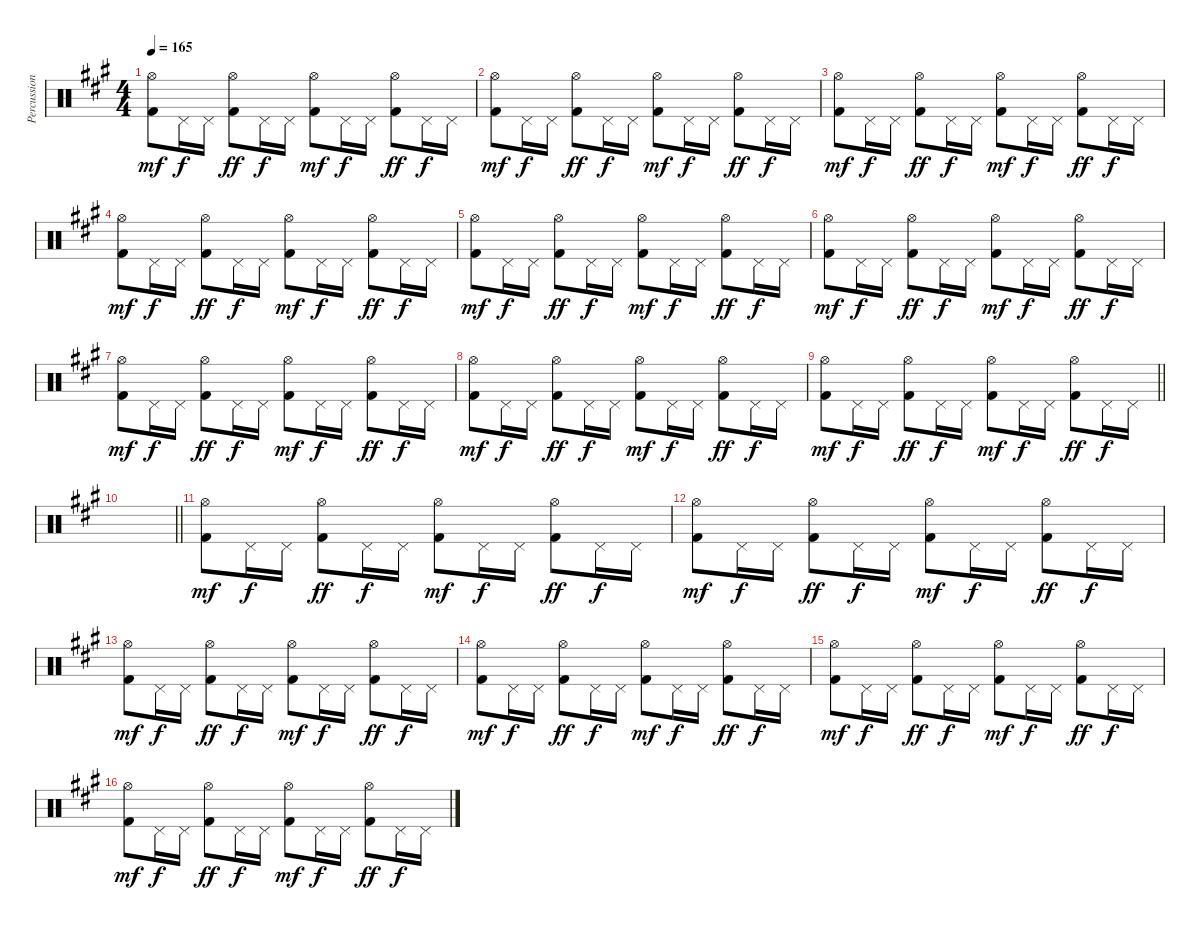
\track ("Percussion" "Percussion") {instrument percussion}
\staff {score}
\articulation defaults
\ts (4 4)
\tempo 165
\clef neutral
\ks a
("Hi-Hat (open)" "Kick (hit) 2").8{dy mf} "Pedal Hi-Hat (hit)".16{dy f} "Pedal Hi-Hat (hit)".16 ("Hi-Hat (open)" "Kick (hit) 2").8{dy ff} "Pedal Hi-Hat (hit)".16{dy f} "Pedal Hi-Hat (hit)".16 ("Hi-Hat (open)" "Kick (hit) 2").8{dy mf} "Pedal Hi-Hat (hit)".16{dy f} "Pedal Hi-Hat (hit)".16 ("Hi-Hat (open)" "Kick (hit) 2").8{dy ff} "Pedal Hi-Hat (hit)".16{dy f} "Pedal Hi-Hat (hit)".16 |
("Hi-Hat (open)" "Kick (hit) 2").8{dy mf} "Pedal Hi-Hat (hit)".16{dy f} "Pedal Hi-Hat (hit)".16 ("Hi-Hat (open)" "Kick (hit) 2").8{dy ff} "Pedal Hi-Hat (hit)".16{dy f} "Pedal Hi-Hat (hit)".16 ("Hi-Hat (open)" "Kick (hit) 2").8{dy mf} "Pedal Hi-Hat (hit)".16{dy f} "Pedal Hi-Hat (hit)".16 ("Hi-Hat (open)" "Kick (hit) 2").8{dy ff} "Pedal Hi-Hat (hit)".16{dy f} "Pedal Hi-Hat (hit)".16 |
("Hi-Hat (open)" "Kick (hit) 2").8{dy mf} "Pedal Hi-Hat (hit)".16{dy f} "Pedal Hi-Hat (hit)".16 ("Hi-Hat (open)" "Kick (hit) 2").8{dy ff} "Pedal Hi-Hat (hit)".16{dy f} "Pedal Hi-Hat (hit)".16 ("Hi-Hat (open)" "Kick (hit) 2").8{dy mf} "Pedal Hi-Hat (hit)".16{dy f} "Pedal Hi-Hat (hit)".16 ("Hi-Hat (open)" "Kick (hit) 2").8{dy ff} "Pedal Hi-Hat (hit)".16{dy f} "Pedal Hi-Hat (hit)".16 |
("Hi-Hat (open)" "Kick (hit) 2").8{dy mf} "Pedal Hi-Hat (hit)".16{dy f} "Pedal Hi-Hat (hit)".16 ("Hi-Hat (open)" "Kick (hit) 2").8{dy ff} "Pedal Hi-Hat (hit)".16{dy f} "Pedal Hi-Hat (hit)".16 ("Hi-Hat (open)" "Kick (hit) 2").8{dy mf} "Pedal Hi-Hat (hit)".16{dy f} "Pedal Hi-Hat (hit)".16 ("Hi-Hat (open)" "Kick (hit) 2").8{dy ff} "Pedal Hi-Hat (hit)".16{dy f} "Pedal Hi-Hat (hit)".16 |
("Hi-Hat (open)" "Kick (hit) 2").8{dy mf} "Pedal Hi-Hat (hit)".16{dy f} "Pedal Hi-Hat (hit)".16 ("Hi-Hat (open)" "Kick (hit) 2").8{dy ff} "Pedal Hi-Hat (hit)".16{dy f} "Pedal Hi-Hat (hit)".16 ("Hi-Hat (open)" "Kick (hit) 2").8{dy mf} "Pedal Hi-Hat (hit)".16{dy f} "Pedal Hi-Hat (hit)".16 ("Hi-Hat (open)" "Kick (hit) 2").8{dy ff} "Pedal Hi-Hat (hit)".16{dy f} "Pedal Hi-Hat (hit)".16 |
("Hi-Hat (open)" "Kick (hit) 2").8{dy mf} "Pedal Hi-Hat (hit)".16{dy f} "Pedal Hi-Hat (hit)".16 ("Hi-Hat (open)" "Kick (hit) 2").8{dy ff} "Pedal Hi-Hat (hit)".16{dy f} "Pedal Hi-Hat (hit)".16 ("Hi-Hat (open)" "Kick (hit) 2").8{dy mf} "Pedal Hi-Hat (hit)".16{dy f} "Pedal Hi-Hat (hit)".16 ("Hi-Hat (open)" "Kick (hit) 2").8{dy ff} "Pedal Hi-Hat (hit)".16{dy f} "Pedal Hi-Hat (hit)".16 |
("Hi-Hat (open)" "Kick (hit) 2").8{dy mf} "Pedal Hi-Hat (hit)".16{dy f} "Pedal Hi-Hat (hit)".16 ("Hi-Hat (open)" "Kick (hit) 2").8{dy ff} "Pedal Hi-Hat (hit)".16{dy f} "Pedal Hi-Hat (hit)".16 ("Hi-Hat (open)" "Kick (hit) 2").8{dy mf} "Pedal Hi-Hat (hit)".16{dy f} "Pedal Hi-Hat (hit)".16 ("Hi-Hat (open)" "Kick (hit) 2").8{dy ff} "Pedal Hi-Hat (hit)".16{dy f} "Pedal Hi-Hat (hit)".16 |
("Hi-Hat (open)" "Kick (hit) 2").8{dy mf} "Pedal Hi-Hat (hit)".16{dy f} "Pedal Hi-Hat (hit)".16 ("Hi-Hat (open)" "Kick (hit) 2").8{dy ff} "Pedal Hi-Hat (hit)".16{dy f} "Pedal Hi-Hat (hit)".16 ("Hi-Hat (open)" "Kick (hit) 2").8{dy mf} "Pedal Hi-Hat (hit)".16{dy f} "Pedal Hi-Hat (hit)".16 ("Hi-Hat (open)" "Kick (hit) 2").8{dy ff} "Pedal Hi-Hat (hit)".16{dy f} "Pedal Hi-Hat (hit)".16 |
\barLineRight lightlight
("Hi-Hat (open)" "Kick (hit) 2").8{dy mf} "Pedal Hi-Hat (hit)".16{dy f} "Pedal Hi-Hat (hit)".16 ("Hi-Hat (open)" "Kick (hit) 2").8{dy ff} "Pedal Hi-Hat (hit)".16{dy f} "Pedal Hi-Hat (hit)".16 ("Hi-Hat (open)" "Kick (hit) 2").8{dy mf} "Pedal Hi-Hat (hit)".16{dy f} "Pedal Hi-Hat (hit)".16 ("Hi-Hat (open)" "Kick (hit) 2").8{dy ff} "Pedal Hi-Hat (hit)".16{dy f} "Pedal Hi-Hat (hit)".16 |
\barLineRight lightlight
|
("Hi-Hat (open)" "Kick (hit) 2").8{dy mf} "Pedal Hi-Hat (hit)".16{dy f} "Pedal Hi-Hat (hit)".16 ("Hi-Hat (open)" "Kick (hit) 2").8{dy ff} "Pedal Hi-Hat (hit)".16{dy f} "Pedal Hi-Hat (hit)".16 ("Hi-Hat (open)" "Kick (hit) 2").8{dy mf} "Pedal Hi-Hat (hit)".16{dy f} "Pedal Hi-Hat (hit)".16 ("Hi-Hat (open)" "Kick (hit) 2").8{dy ff} "Pedal Hi-Hat (hit)".16{dy f} "Pedal Hi-Hat (hit)".16 |
("Hi-Hat (open)" "Kick (hit) 2").8{dy mf} "Pedal Hi-Hat (hit)".16{dy f} "Pedal Hi-Hat (hit)".16 ("Hi-Hat (open)" "Kick (hit) 2").8{dy ff} "Pedal Hi-Hat (hit)".16{dy f} "Pedal Hi-Hat (hit)".16 ("Hi-Hat (open)" "Kick (hit) 2").8{dy mf} "Pedal Hi-Hat (hit)".16{dy f} "Pedal Hi-Hat (hit)".16 ("Hi-Hat (open)" "Kick (hit) 2").8{dy ff} "Pedal Hi-Hat (hit)".16{dy f} "Pedal Hi-Hat (hit)".16 |
("Hi-Hat (open)" "Kick (hit) 2").8{dy mf} "Pedal Hi-Hat (hit)".16{dy f} "Pedal Hi-Hat (hit)".16 ("Hi-Hat (open)" "Kick (hit) 2").8{dy ff} "Pedal Hi-Hat (hit)".16{dy f} "Pedal Hi-Hat (hit)".16 ("Hi-Hat (open)" "Kick (hit) 2").8{dy mf} "Pedal Hi-Hat (hit)".16{dy f} "Pedal Hi-Hat (hit)".16 ("Hi-Hat (open)" "Kick (hit) 2").8{dy ff} "Pedal Hi-Hat (hit)".16{dy f} "Pedal Hi-Hat (hit)".16 |
("Hi-Hat (open)" "Kick (hit) 2").8{dy mf} "Pedal Hi-Hat (hit)".16{dy f} "Pedal Hi-Hat (hit)".16 ("Hi-Hat (open)" "Kick (hit) 2").8{dy ff} "Pedal Hi-Hat (hit)".16{dy f} "Pedal Hi-Hat (hit)".16 ("Hi-Hat (open)" "Kick (hit) 2").8{dy mf} "Pedal Hi-Hat (hit)".16{dy f} "Pedal Hi-Hat (hit)".16 ("Hi-Hat (open)" "Kick (hit) 2").8{dy ff} "Pedal Hi-Hat (hit)".16{dy f} "Pedal Hi-Hat (hit)".16 |
("Hi-Hat (open)" "Kick (hit) 2").8{dy mf} "Pedal Hi-Hat (hit)".16{dy f} "Pedal Hi-Hat (hit)".16 ("Hi-Hat (open)" "Kick (hit) 2").8{dy ff} "Pedal Hi-Hat (hit)".16{dy f} "Pedal Hi-Hat (hit)".16 ("Hi-Hat (open)" "Kick (hit) 2").8{dy mf} "Pedal Hi-Hat (hit)".16{dy f} "Pedal Hi-Hat (hit)".16 ("Hi-Hat (open)" "Kick (hit) 2").8{dy ff} "Pedal Hi-Hat (hit)".16{dy f} "Pedal Hi-Hat (hit)".16 |
("Hi-Hat (open)" "Kick (hit) 2").8{dy mf} "Pedal Hi-Hat (hit)".16{dy f} "Pedal Hi-Hat (hit)".16 ("Hi-Hat (open)" "Kick (hit) 2").8{dy ff} "Pedal Hi-Hat (hit)".16{dy f} "Pedal Hi-Hat (hit)".16 ("Hi-Hat (open)" "Kick (hit) 2").8{dy mf} "Pedal Hi-Hat (hit)".16{dy f} "Pedal Hi-Hat (hit)".16 ("Hi-Hat (open)" "Kick (hit) 2").8{dy ff} "Pedal Hi-Hat (hit)".16{dy f} "Pedal Hi-Hat (hit)".16
